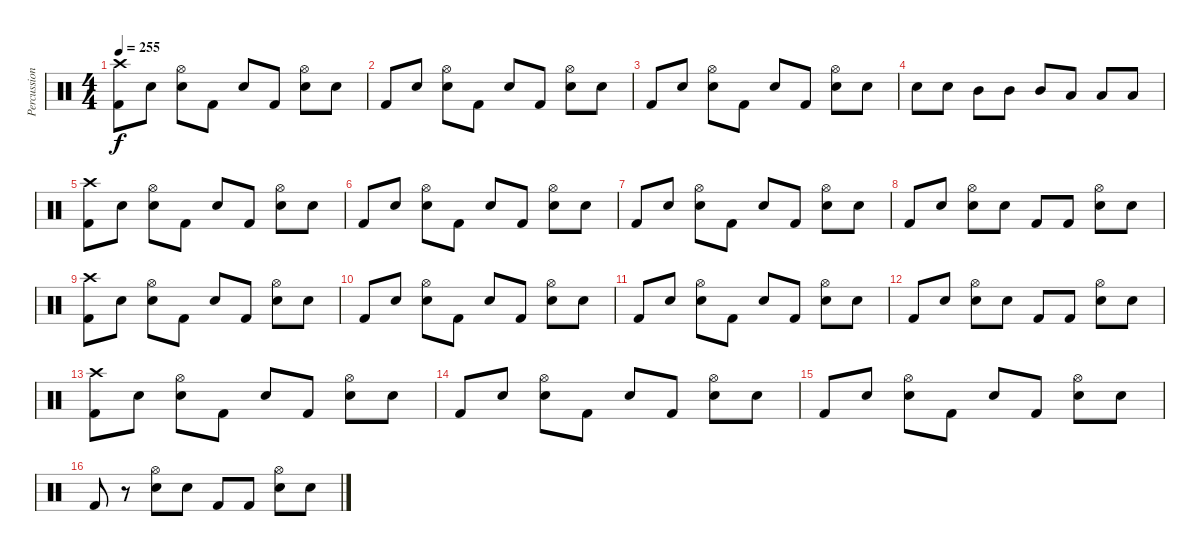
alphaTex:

\track ("Percussion" "Percussion") {instrument percussion}
\staff {score}
\articulation defaults
\ts (4 4)
\tempo 255
\clef neutral
\ks c
("Kick (hit) 2" "Crash high (hit)").8{dy f} "Snare (hit)"{x}.8 ("Snare (hit) 2" "Hi-Hat (open)").8 "Kick (hit) 2".8 "Snare (hit)"{x}.8 "Kick (hit) 2".8 ("Snare (hit) 2" "Hi-Hat (open)").8 "Snare (hit)"{x}.8 |
"Kick (hit) 2".8 "Snare (hit)"{x}.8 ("Snare (hit) 2" "Hi-Hat (open)").8 "Kick (hit) 2".8 "Snare (hit)"{x}.8 "Kick (hit) 2".8 ("Snare (hit) 2" "Hi-Hat (open)").8 "Snare (hit)"{x}.8 |
"Kick (hit) 2".8 "Snare (hit)"{x}.8 ("Snare (hit) 2" "Hi-Hat (open)").8 "Kick (hit) 2".8 "Snare (hit)"{x}.8 "Kick (hit) 2".8 ("Snare (hit) 2" "Hi-Hat (open)").8 "Snare (hit) 2".8 |
"Snare (hit) 2".8 "Snare (hit) 2".8 "Mid Tom (hit)".8 "Mid Tom (hit)".8 "Mid Tom (hit)".8 "Low Tom (hit)".8 "Low Tom (hit)".8 "Low Tom (hit)".8 |
("Kick (hit) 2" "Crash high (hit)").8 "Snare (hit)"{x}.8 ("Snare (hit) 2" "Hi-Hat (open)").8 "Kick (hit) 2".8 "Snare (hit)"{x}.8 "Kick (hit) 2".8 ("Snare (hit) 2" "Hi-Hat (open)").8 "Snare (hit)"{x}.8 |
"Kick (hit) 2".8 "Snare (hit)"{x}.8 ("Snare (hit) 2" "Hi-Hat (open)").8 "Kick (hit) 2".8 "Snare (hit)"{x}.8 "Kick (hit) 2".8 ("Snare (hit) 2" "Hi-Hat (open)").8 "Snare (hit)"{x}.8 |
"Kick (hit) 2".8 "Snare (hit)"{x}.8 ("Snare (hit) 2" "Hi-Hat (open)").8 "Kick (hit) 2".8 "Snare (hit)"{x}.8 "Kick (hit) 2".8 ("Snare (hit) 2" "Hi-Hat (open)").8 "Snare (hit)"{x}.8 |
"Kick (hit) 2".8 "Snare (hit)"{x}.8 ("Snare (hit) 2" "Hi-Hat (open)").8 "Snare (hit)"{x}.8 "Kick (hit) 2".8 "Kick (hit) 2".8 ("Snare (hit) 2" "Hi-Hat (open)").8 "Snare (hit)"{x}.8 |
("Kick (hit) 2" "Crash high (hit)").8 "Snare (hit)"{x}.8 ("Snare (hit) 2" "Hi-Hat (open)").8 "Kick (hit) 2".8 "Snare (hit)"{x}.8 "Kick (hit) 2".8 ("Snare (hit) 2" "Hi-Hat (open)").8 "Snare (hit)"{x}.8 |
"Kick (hit) 2".8 "Snare (hit)"{x}.8 ("Snare (hit) 2" "Hi-Hat (open)").8 "Kick (hit) 2".8 "Snare (hit)"{x}.8 "Kick (hit) 2".8 ("Snare (hit) 2" "Hi-Hat (open)").8 "Snare (hit)"{x}.8 |
"Kick (hit) 2".8 "Snare (hit)"{x}.8 ("Snare (hit) 2" "Hi-Hat (open)").8 "Kick (hit) 2".8 "Snare (hit)"{x}.8 "Kick (hit) 2".8 ("Snare (hit) 2" "Hi-Hat (open)").8 "Snare (hit)"{x}.8 |
"Kick (hit) 2".8 "Snare (hit)"{x}.8 ("Snare (hit) 2" "Hi-Hat (open)").8 "Snare (hit)"{x}.8 "Kick (hit) 2".8 "Kick (hit) 2".8 ("Snare (hit) 2" "Hi-Hat (open)").8 "Snare (hit)"{x}.8 |
("Kick (hit) 2" "Crash high (hit)").8 "Snare (hit)"{x}.8 ("Snare (hit) 2" "Hi-Hat (open)").8 "Kick (hit) 2".8 "Snare (hit)"{x}.8 "Kick (hit) 2".8 ("Snare (hit) 2" "Hi-Hat (open)").8 "Snare (hit)"{x}.8 |
"Kick (hit) 2".8 "Snare (hit)"{x}.8 ("Snare (hit) 2" "Hi-Hat (open)").8 "Kick (hit) 2".8 "Snare (hit)"{x}.8 "Kick (hit) 2".8 ("Snare (hit) 2" "Hi-Hat (open)").8 "Snare (hit)"{x}.8 |
"Kick (hit) 2".8 "Snare (hit)"{x}.8 ("Snare (hit) 2" "Hi-Hat (open)").8 "Kick (hit) 2".8 "Snare (hit)"{x}.8 "Kick (hit) 2".8 ("Snare (hit) 2" "Hi-Hat (open)").8 "Snare (hit)"{x}.8 |
"Kick (hit) 2".8 r.8 ("Snare (hit) 2" "Hi-Hat (open)").8 "Snare (hit)"{x}.8 "Kick (hit) 2".8 "Kick (hit) 2".8 ("Snare (hit) 2" "Hi-Hat (open)").8 "Snare (hit)"{x}.8
